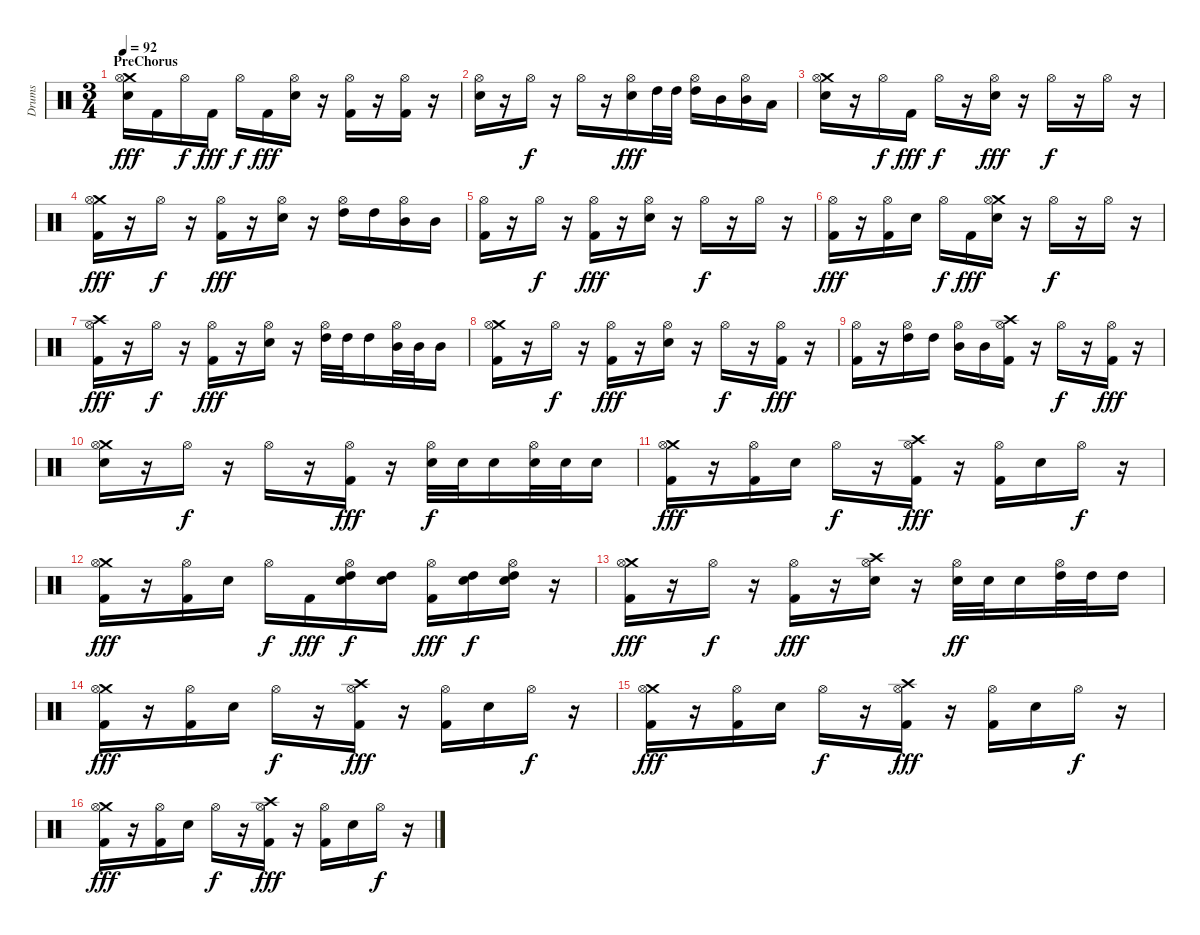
\track ("Drums" "Drums") {instrument percussion}
\staff {score}
\articulation defaults
\ts (3 4)
\section ("" "PreChorus")
\tempo 92
\clef neutral
\ks c
("Crash medium (hit)" "Hi-Hat (open)" "Snare (hit) 2").16{dy fff} "Kick (hit) 2".16 "Hi-Hat (open)".16{dy f} "Kick (hit) 2".16{dy fff} "Hi-Hat (open)".16{dy f} "Kick (hit) 2".16{dy fff} ("Hi-Hat (open)" "Snare (hit) 2").16 r.16 ("Hi-Hat (open)" "Kick (hit) 2").16 r.16 ("Hi-Hat (open)" "Kick (hit) 2").16 r.16 |
("Hi-Hat (open)" "Snare (hit) 2").16 r.16 "Hi-Hat (open)".16{dy f} r.16 "Hi-Hat (open)".16 r.16 ("Hi-Hat (open)" "Snare (hit) 2").16{dy fff} "High Tom (hit)".32 "High Tom (hit)".32 ("Hi-Hat (open)" "High Tom (hit)").16 "Mid Tom (hit)".16 ("Hi-Hat (open)" "Mid Tom (hit)").16 "Low Tom (hit)".16 |
("Crash medium (hit)" "Hi-Hat (open)" "Snare (hit) 2").16 r.16 "Hi-Hat (open)".16{dy f} "Kick (hit) 2".16{dy fff} "Hi-Hat (open)".16{dy f} r.16 ("Hi-Hat (open)" "Snare (hit) 2").16{dy fff} r.16 "Hi-Hat (open)".16{dy f} r.16 "Hi-Hat (open)".16 r.16 |
("Crash medium (hit)" "Hi-Hat (open)" "Kick (hit) 2").16{dy fff} r.16 "Hi-Hat (open)".16{dy f} r.16 ("Hi-Hat (open)" "Kick (hit) 2").16{dy fff} r.16 ("Hi-Hat (open)" "Snare (hit) 2").16 r.16 ("Hi-Hat (open)" "High Tom (hit)").16 "High Tom (hit)".16 ("Hi-Hat (open)" "Mid Tom (hit)").16 "Mid Tom (hit)".16 |
("Hi-Hat (open)" "Kick (hit) 2").16 r.16 "Hi-Hat (open)".16{dy f} r.16 ("Hi-Hat (open)" "Kick (hit) 2").16{dy fff} r.16 ("Hi-Hat (open)" "Snare (hit) 2").16 r.16 "Hi-Hat (open)".16{dy f} r.16 "Hi-Hat (open)".16 r.16 |
("Hi-Hat (open)" "Kick (hit) 2").16{dy fff} r.16 ("Hi-Hat (open)" "Kick (hit) 2").16 "Snare (hit) 2".16 "Hi-Hat (open)".16{dy f} "Kick (hit) 2".16{dy fff} ("Crash medium (hit)" "Hi-Hat (open)" "Snare (hit) 2").16 r.16 "Hi-Hat (open)".16{dy f} r.16 "Hi-Hat (open)".16 r.16 |
("Crash high (hit)" "Hi-Hat (open)" "Kick (hit) 2").16{dy fff} r.16 "Hi-Hat (open)".16{dy f} r.16 ("Hi-Hat (open)" "Kick (hit) 2").16{dy fff} r.16 ("Hi-Hat (open)" "Snare (hit) 2").16 r.16 ("Hi-Hat (open)" "High Tom (hit)").32 "High Tom (hit)".32 "High Tom (hit)".16 ("Hi-Hat (open)" "Mid Tom (hit)").32 "Mid Tom (hit)".32 "Mid Tom (hit)".16 |
("Crash medium (hit)" "Hi-Hat (open)" "Kick (hit) 2").16 r.16 "Hi-Hat (open)".16{dy f} r.16 ("Hi-Hat (open)" "Kick (hit) 2").16{dy fff} r.16 ("Hi-Hat (open)" "Snare (hit) 2").16 r.16 "Hi-Hat (open)".16{dy f} r.16 ("Hi-Hat (open)" "Kick (hit) 2").16{dy fff} r.16 |
("Hi-Hat (open)" "Kick (hit) 2").16 r.16 ("Hi-Hat (open)" "High Tom (hit)").16 "High Tom (hit)".16 ("Hi-Hat (open)" "Mid Tom (hit)").16 "Mid Tom (hit)".16 ("Crash high (hit)" "Hi-Hat (open)" "Kick (hit) 2").16 r.16 "Hi-Hat (open)".16{dy f} r.16 ("Hi-Hat (open)" "Kick (hit) 2").16{dy fff} r.16 |
("Crash medium (hit)" "Hi-Hat (open)" "Snare (hit) 2").16 r.16 "Hi-Hat (open)".16{dy f} r.16 "Hi-Hat (open)".16 r.16 ("Hi-Hat (open)" "Kick (hit) 2").16{dy fff} r.16 ("Hi-Hat (open)" "Snare (hit) 2").32{dy f} "Snare (hit) 2".32 "Snare (hit) 2".16 ("Hi-Hat (open)" "Snare (hit) 2").32 "Snare (hit) 2".32 "Snare (hit) 2".16 |
("Crash medium (hit)" "Hi-Hat (open)" "Kick (hit) 2").16{dy fff} r.16 ("Hi-Hat (open)" "Kick (hit) 2").16 "Snare (hit) 2".16 "Hi-Hat (open)".16{dy f} r.16 ("Crash high (hit)" "Hi-Hat (open)" "Kick (hit) 2").16{dy fff} r.16 ("Hi-Hat (open)" "Kick (hit) 2").16 "Snare (hit) 2".16 "Hi-Hat (open)".16{dy f} r.16 |
("Crash medium (hit)" "Hi-Hat (open)" "Kick (hit) 2").16{dy fff} r.16 ("Hi-Hat (open)" "Kick (hit) 2").16 "Snare (hit) 2".16 "Hi-Hat (open)".16{dy f} "Kick (hit) 2".16{dy fff} ("Hi-Hat (open)" "High Tom (hit)" "Snare (hit) 2").16{dy f} ("High Tom (hit)" "Snare (hit) 2").16 ("Hi-Hat (open)" "Kick (hit) 2").16{dy fff} ("High Tom (hit)" "Snare (hit) 2").16{dy f} ("Hi-Hat (open)" "High Tom (hit)" "Snare (hit) 2").16 r.16 |
("Crash medium (hit)" "Hi-Hat (open)" "Kick (hit) 2").16{dy fff} r.16 "Hi-Hat (open)".16{dy f} r.16 ("Hi-Hat (open)" "Kick (hit) 2").16{dy fff} r.16 ("Crash high (hit)" "Hi-Hat (open)" "Snare (hit) 2").16 r.16 ("Hi-Hat (open)" "Snare (hit) 2").32{dy ff} "Snare (hit) 2".32 "Snare (hit) 2".16 ("Hi-Hat (open)" "High Tom (hit)").32 "High Tom (hit)".32 "High Tom (hit)".16 |
("Crash medium (hit)" "Hi-Hat (open)" "Kick (hit) 2").16{dy fff} r.16 ("Hi-Hat (open)" "Kick (hit) 2").16 "Snare (hit) 2".16 "Hi-Hat (open)".16{dy f} r.16 ("Crash high (hit)" "Hi-Hat (open)" "Kick (hit) 2").16{dy fff} r.16 ("Hi-Hat (open)" "Kick (hit) 2").16 "Snare (hit) 2".16 "Hi-Hat (open)".16{dy f} r.16 |
("Crash medium (hit)" "Hi-Hat (open)" "Kick (hit) 2").16{dy fff} r.16 ("Hi-Hat (open)" "Kick (hit) 2").16 "Snare (hit) 2".16 "Hi-Hat (open)".16{dy f} r.16 ("Crash high (hit)" "Hi-Hat (open)" "Kick (hit) 2").16{dy fff} r.16 ("Hi-Hat (open)" "Kick (hit) 2").16 "Snare (hit) 2".16 "Hi-Hat (open)".16{dy f} r.16 |
("Crash medium (hit)" "Hi-Hat (open)" "Kick (hit) 2").16{dy fff} r.16 ("Hi-Hat (open)" "Kick (hit) 2").16 "Snare (hit) 2".16 "Hi-Hat (open)".16{dy f} r.16 ("Crash high (hit)" "Hi-Hat (open)" "Kick (hit) 2").16{dy fff} r.16 ("Hi-Hat (open)" "Kick (hit) 2").16 "Snare (hit) 2".16 "Hi-Hat (open)".16{dy f} r.16
